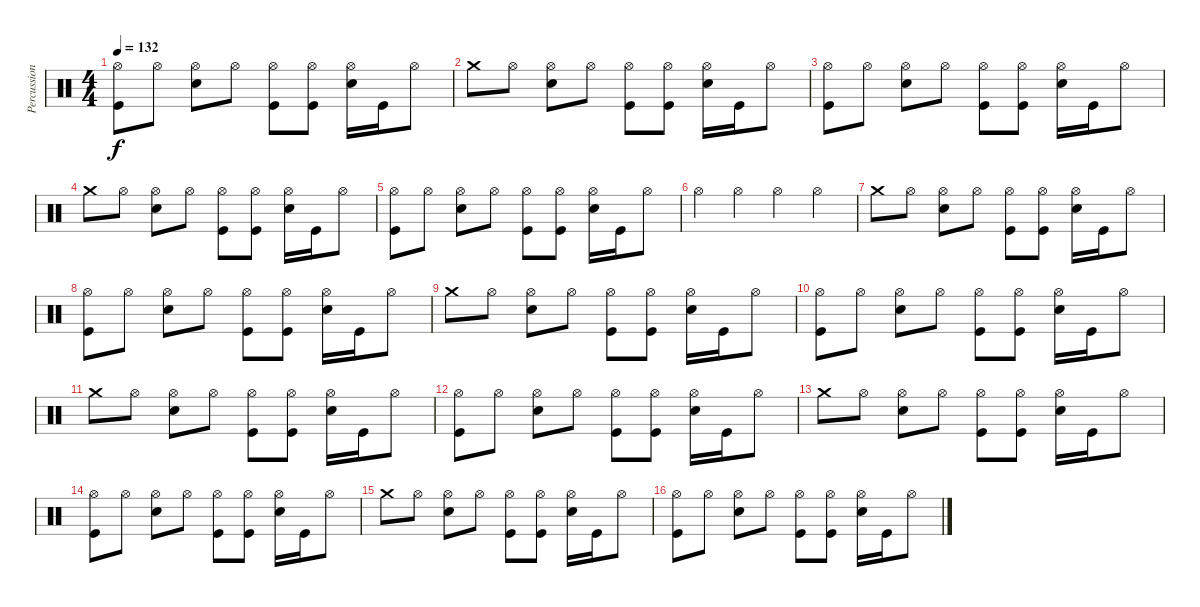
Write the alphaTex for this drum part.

\track ("Percussions" "Percussion") {instrument percussion}
\staff {score}
\articulation defaults
\ts (4 4)
\tempo 132
\clef neutral
\ks c
("Hi-Hat (open)" "Kick (hit)").8{dy f} "Hi-Hat (open)".8 ("Hi-Hat (open)" "Electric Snare (hit)").8 "Hi-Hat (open)".8 ("Hi-Hat (open)" "Kick (hit)").8 ("Hi-Hat (open)" "Kick (hit)").8 ("Hi-Hat (open)" "Electric Snare (hit)").16 "Kick (hit)".16 "Hi-Hat (open)".8 |
"Crash medium (hit)".8 "Hi-Hat (open)".8 ("Hi-Hat (open)" "Electric Snare (hit)").8 "Hi-Hat (open)".8 ("Hi-Hat (open)" "Kick (hit)").8 ("Hi-Hat (open)" "Kick (hit)").8 ("Hi-Hat (open)" "Electric Snare (hit)").16 "Kick (hit)".16 "Hi-Hat (open)".8 |
("Hi-Hat (open)" "Kick (hit)").8 "Hi-Hat (open)".8 ("Hi-Hat (open)" "Electric Snare (hit)").8 "Hi-Hat (open)".8 ("Hi-Hat (open)" "Kick (hit)").8 ("Hi-Hat (open)" "Kick (hit)").8 ("Hi-Hat (open)" "Electric Snare (hit)").16 "Kick (hit)".16 "Hi-Hat (open)".8 |
"Crash medium (hit)".8 "Hi-Hat (open)".8 ("Hi-Hat (open)" "Electric Snare (hit)").8 "Hi-Hat (open)".8 ("Hi-Hat (open)" "Kick (hit)").8 ("Hi-Hat (open)" "Kick (hit)").8 ("Hi-Hat (open)" "Electric Snare (hit)").16 "Kick (hit)".16 "Hi-Hat (open)".8 |
("Hi-Hat (open)" "Kick (hit)").8 "Hi-Hat (open)".8 ("Hi-Hat (open)" "Electric Snare (hit)").8 "Hi-Hat (open)".8 ("Hi-Hat (open)" "Kick (hit)").8 ("Hi-Hat (open)" "Kick (hit)").8 ("Hi-Hat (open)" "Electric Snare (hit)").16 "Kick (hit)".16 "Hi-Hat (open)".8 |
"Hi-Hat (open)".4 "Hi-Hat (open)".4 "Hi-Hat (open)".4 "Hi-Hat (open)".4 |
"Crash medium (hit)".8 "Hi-Hat (open)".8 ("Hi-Hat (open)" "Electric Snare (hit)").8 "Hi-Hat (open)".8 ("Hi-Hat (open)" "Kick (hit)").8 ("Hi-Hat (open)" "Kick (hit)").8 ("Hi-Hat (open)" "Electric Snare (hit)").16 "Kick (hit)".16 "Hi-Hat (open)".8 |
("Hi-Hat (open)" "Kick (hit)").8 "Hi-Hat (open)".8 ("Hi-Hat (open)" "Electric Snare (hit)").8 "Hi-Hat (open)".8 ("Hi-Hat (open)" "Kick (hit)").8 ("Hi-Hat (open)" "Kick (hit)").8 ("Hi-Hat (open)" "Electric Snare (hit)").16 "Kick (hit)".16 "Hi-Hat (open)".8 |
"Crash medium (hit)".8 "Hi-Hat (open)".8 ("Hi-Hat (open)" "Electric Snare (hit)").8 "Hi-Hat (open)".8 ("Hi-Hat (open)" "Kick (hit)").8 ("Hi-Hat (open)" "Kick (hit)").8 ("Hi-Hat (open)" "Electric Snare (hit)").16 "Kick (hit)".16 "Hi-Hat (open)".8 |
("Hi-Hat (open)" "Kick (hit)").8 "Hi-Hat (open)".8 ("Hi-Hat (open)" "Electric Snare (hit)").8 "Hi-Hat (open)".8 ("Hi-Hat (open)" "Kick (hit)").8 ("Hi-Hat (open)" "Kick (hit)").8 ("Hi-Hat (open)" "Electric Snare (hit)").16 "Kick (hit)".16 "Hi-Hat (open)".8 |
"Crash medium (hit)".8 "Hi-Hat (open)".8 ("Hi-Hat (open)" "Electric Snare (hit)").8 "Hi-Hat (open)".8 ("Hi-Hat (open)" "Kick (hit)").8 ("Hi-Hat (open)" "Kick (hit)").8 ("Hi-Hat (open)" "Electric Snare (hit)").16 "Kick (hit)".16 "Hi-Hat (open)".8 |
("Hi-Hat (open)" "Kick (hit)").8 "Hi-Hat (open)".8 ("Hi-Hat (open)" "Electric Snare (hit)").8 "Hi-Hat (open)".8 ("Hi-Hat (open)" "Kick (hit)").8 ("Hi-Hat (open)" "Kick (hit)").8 ("Hi-Hat (open)" "Electric Snare (hit)").16 "Kick (hit)".16 "Hi-Hat (open)".8 |
"Crash medium (hit)".8 "Hi-Hat (open)".8 ("Hi-Hat (open)" "Electric Snare (hit)").8 "Hi-Hat (open)".8 ("Hi-Hat (open)" "Kick (hit)").8 ("Hi-Hat (open)" "Kick (hit)").8 ("Hi-Hat (open)" "Electric Snare (hit)").16 "Kick (hit)".16 "Hi-Hat (open)".8 |
("Hi-Hat (open)" "Kick (hit)").8 "Hi-Hat (open)".8 ("Hi-Hat (open)" "Electric Snare (hit)").8 "Hi-Hat (open)".8 ("Hi-Hat (open)" "Kick (hit)").8 ("Hi-Hat (open)" "Kick (hit)").8 ("Hi-Hat (open)" "Electric Snare (hit)").16 "Kick (hit)".16 "Hi-Hat (open)".8 |
"Crash medium (hit)".8 "Hi-Hat (open)".8 ("Hi-Hat (open)" "Electric Snare (hit)").8 "Hi-Hat (open)".8 ("Hi-Hat (open)" "Kick (hit)").8 ("Hi-Hat (open)" "Kick (hit)").8 ("Hi-Hat (open)" "Electric Snare (hit)").16 "Kick (hit)".16 "Hi-Hat (open)".8 |
("Hi-Hat (open)" "Kick (hit)").8 "Hi-Hat (open)".8 ("Hi-Hat (open)" "Electric Snare (hit)").8 "Hi-Hat (open)".8 ("Hi-Hat (open)" "Kick (hit)").8 ("Hi-Hat (open)" "Kick (hit)").8 ("Hi-Hat (open)" "Electric Snare (hit)").16 "Kick (hit)".16 "Hi-Hat (open)".8
